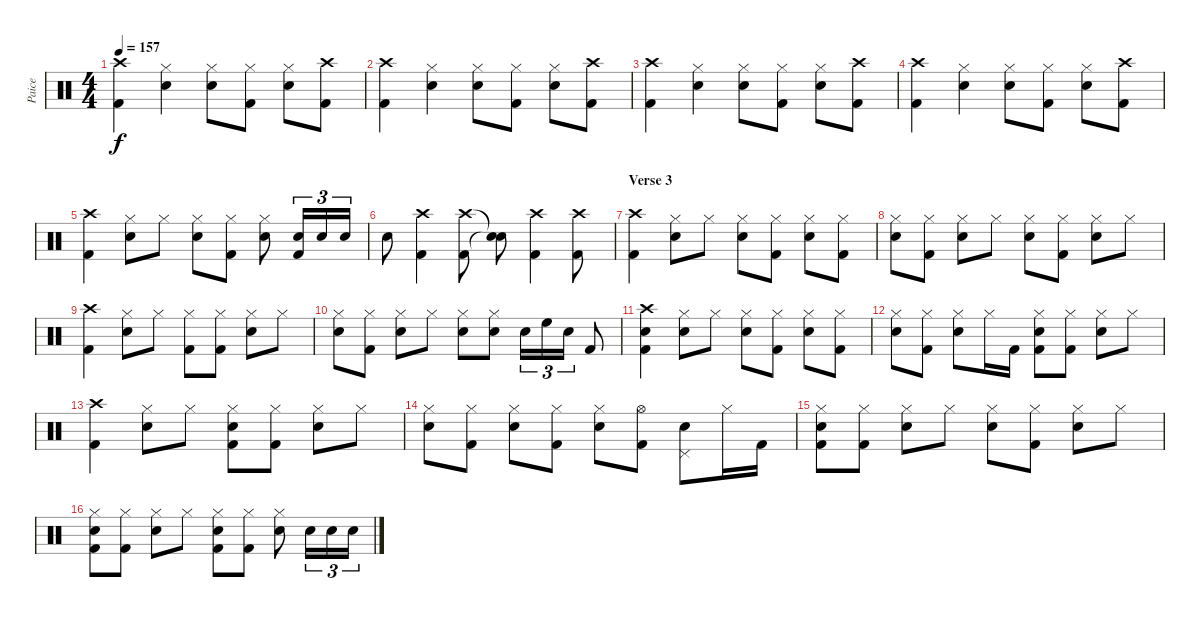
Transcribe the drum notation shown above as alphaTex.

\track ("Paice" "Paice") {instrument percussion}
\staff {score}
\articulation defaults
\ts (4 4)
\tempo 157
\clef neutral
\ks c
("Crash high (hit)" "Kick (hit) 2").4{dy f} ("Hi-Hat (closed)" "Snare (hit) 2").4 ("Hi-Hat (closed)" "Snare (hit) 2").8 ("Hi-Hat (closed)" "Kick (hit) 2").8 ("Hi-Hat (closed)" "Snare (hit) 2").8 ("Crash high (hit)" "Kick (hit) 2").8 |
("Crash high (hit)" "Kick (hit) 2").4 ("Hi-Hat (closed)" "Snare (hit) 2").4 ("Hi-Hat (closed)" "Snare (hit) 2").8 ("Hi-Hat (closed)" "Kick (hit) 2").8 ("Hi-Hat (closed)" "Snare (hit) 2").8 ("Crash high (hit)" "Kick (hit) 2").8 |
("Crash high (hit)" "Kick (hit) 2").4 ("Hi-Hat (closed)" "Snare (hit) 2").4 ("Hi-Hat (closed)" "Snare (hit) 2").8 ("Hi-Hat (closed)" "Kick (hit) 2").8 ("Hi-Hat (closed)" "Snare (hit) 2").8 ("Crash high (hit)" "Kick (hit) 2").8 |
("Crash high (hit)" "Kick (hit) 2").4 ("Hi-Hat (closed)" "Snare (hit) 2").4 ("Hi-Hat (closed)" "Snare (hit) 2").8 ("Hi-Hat (closed)" "Kick (hit) 2").8 ("Hi-Hat (closed)" "Snare (hit) 2").8 ("Crash high (hit)" "Kick (hit) 2").8 |
("Crash high (hit)" "Kick (hit) 2").4 ("Hi-Hat (closed)" "Snare (hit) 2").8 "Hi-Hat (closed)".8 ("Hi-Hat (closed)" "Snare (hit) 2").8 ("Hi-Hat (closed)" "Kick (hit) 2").8 ("Hi-Hat (closed)" "Snare (hit) 2").8 ("Snare (hit) 2" "Kick (hit) 2").16{tu (3 2)} "Snare (hit) 2".16{tu (3 2)} "Snare (hit) 2".16{tu (3 2)} |
"Snare (hit) 2".8 ("Crash high (hit)" "Kick (hit) 2").4 ("Crash high (hit)" "Kick (hit) 2").8 ("Snare (hit)"{t} "Snare (hit)"{t}).8 ("Crash high (hit)" "Kick (hit) 2").4 ("Crash high (hit)" "Kick (hit) 2").8 |
\section ("" "Verse 3")
("Crash high (hit)" "Kick (hit) 2").4 ("Hi-Hat (closed)" "Snare (hit) 2").8 "Hi-Hat (closed)".8 ("Hi-Hat (closed)" "Snare (hit) 2").8 ("Hi-Hat (closed)" "Kick (hit) 2").8 ("Hi-Hat (closed)" "Snare (hit) 2").8 ("Hi-Hat (closed)" "Kick (hit) 2").8 |
("Hi-Hat (closed)" "Snare (hit) 2").8 ("Hi-Hat (closed)" "Kick (hit) 2").8 ("Hi-Hat (closed)" "Snare (hit) 2").8 "Hi-Hat (closed)".8 ("Hi-Hat (closed)" "Snare (hit) 2").8 ("Hi-Hat (closed)" "Kick (hit) 2").8 ("Hi-Hat (closed)" "Snare (hit) 2").8 "Hi-Hat (closed)".8 |
("Crash high (hit)" "Kick (hit) 2").4 ("Hi-Hat (closed)" "Snare (hit) 2").8 "Hi-Hat (closed)".8 ("Hi-Hat (closed)" "Kick (hit) 2").8 ("Hi-Hat (closed)" "Kick (hit) 2").8 ("Hi-Hat (closed)" "Snare (hit) 2").8 "Hi-Hat (closed)".8 |
("Hi-Hat (closed)" "Snare (hit) 2").8 ("Hi-Hat (closed)" "Kick (hit) 2").8 ("Hi-Hat (closed)" "Snare (hit) 2").8 "Hi-Hat (closed)".8 ("Hi-Hat (closed)" "Snare (hit) 2").8 ("Hi-Hat (closed)" "Snare (hit) 2").8 "Snare (hit) 2".16{tu (3 2)} "High Floor Tom (hit)".16{tu (3 2)} "Snare (hit) 2".16{tu (3 2)} "Kick (hit) 2".8 |
("Crash high (hit)" "Snare (hit) 2" "Kick (hit) 2").4 ("Hi-Hat (closed)" "Snare (hit) 2").8 "Hi-Hat (closed)".8 ("Hi-Hat (closed)" "Snare (hit) 2").8 ("Hi-Hat (closed)" "Kick (hit) 2").8 ("Hi-Hat (closed)" "Snare (hit) 2").8 ("Hi-Hat (closed)" "Kick (hit) 2").8 |
("Hi-Hat (closed)" "Snare (hit) 2").8 ("Hi-Hat (closed)" "Kick (hit) 2").8 ("Hi-Hat (closed)" "Snare (hit) 2").8 "Hi-Hat (closed)".16 "Kick (hit) 2".16 ("Hi-Hat (closed)" "Snare (hit) 2" "Kick (hit) 2").8 ("Hi-Hat (closed)" "Kick (hit) 2").8 ("Hi-Hat (closed)" "Snare (hit) 2").8 "Hi-Hat (closed)".8 |
("Crash high (hit)" "Kick (hit) 2").4 ("Hi-Hat (closed)" "Snare (hit) 2").8 "Hi-Hat (closed)".8 ("Hi-Hat (closed)" "Snare (hit) 2" "Kick (hit) 2").8 ("Hi-Hat (closed)" "Kick (hit) 2").8 ("Hi-Hat (closed)" "Snare (hit) 2").8 "Hi-Hat (closed)".8 |
("Hi-Hat (closed)" "Snare (hit) 2").8 ("Hi-Hat (closed)" "Kick (hit) 2").8 ("Hi-Hat (closed)" "Snare (hit) 2").8 ("Hi-Hat (closed)" "Kick (hit) 2").8 ("Hi-Hat (closed)" "Snare (hit) 2").8 ("Hi-Hat (open)" "Kick (hit) 2").8 ("Pedal Hi-Hat (hit)" "Snare (hit) 2").8 "Hi-Hat (closed)".16 "Kick (hit) 2".16 |
("Hi-Hat (closed)" "Snare (hit) 2" "Kick (hit) 2").8 ("Hi-Hat (closed)" "Kick (hit) 2").8 ("Hi-Hat (closed)" "Snare (hit) 2").8 "Hi-Hat (closed)".8 ("Hi-Hat (closed)" "Snare (hit) 2").8 ("Hi-Hat (closed)" "Kick (hit) 2").8 ("Hi-Hat (closed)" "Snare (hit) 2").8 "Hi-Hat (closed)".8 |
("Hi-Hat (closed)" "Snare (hit) 2" "Kick (hit) 2").8 ("Hi-Hat (closed)" "Kick (hit) 2").8 ("Hi-Hat (closed)" "Snare (hit) 2").8 "Hi-Hat (closed)".8 ("Hi-Hat (closed)" "Snare (hit) 2" "Kick (hit) 2").8 ("Hi-Hat (closed)" "Kick (hit) 2").8 ("Hi-Hat (closed)" "Snare (hit) 2").8 "Snare (hit) 2".16{tu (3 2)} "Snare (hit) 2".16{tu (3 2)} "Snare (hit) 2".16{tu (3 2)}
